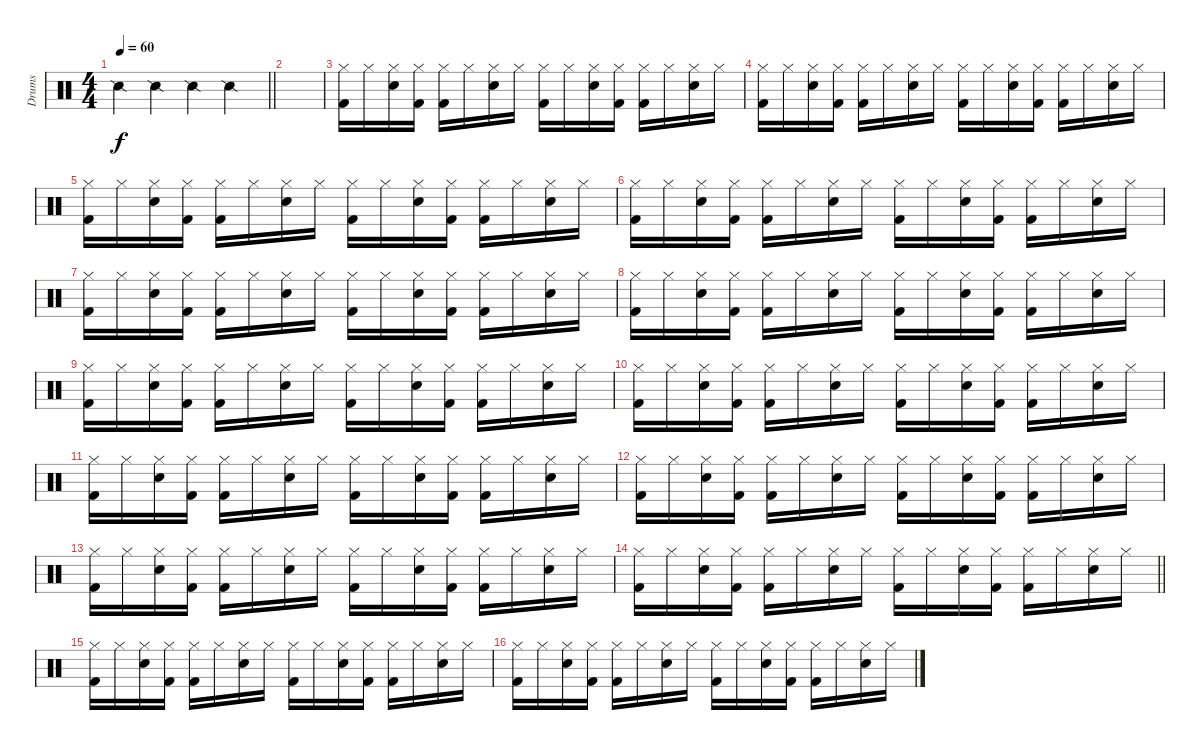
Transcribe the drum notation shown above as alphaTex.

\track ("Drums" "Drums") {instrument percussion}
\staff {score}
\articulation defaults
\ts (4 4)
\tempo 60
\clef neutral
\barLineRight lightlight
\ks c "Snare (side stick) 2".4{dy f} "Snare (side stick) 2".4 "Snare (side stick) 2".4 "Snare (side stick) 2".4
|
\section ("" "")
|
("Kick (hit) 2" "Hi-Hat (closed)").16 "Hi-Hat (closed)".16 ("Electric Snare (hit)" "Hi-Hat (closed)").16 ("Kick (hit) 2" "Hi-Hat (closed)").16 ("Kick (hit) 2" "Hi-Hat (closed)").16 "Hi-Hat (closed)".16 ("Electric Snare (hit)" "Hi-Hat (closed)").16 "Hi-Hat (closed)".16 ("Kick (hit) 2" "Hi-Hat (closed)").16 "Hi-Hat (closed)".16 ("Electric Snare (hit)" "Hi-Hat (closed)").16 ("Kick (hit) 2" "Hi-Hat (closed)").16 ("Kick (hit) 2" "Hi-Hat (closed)").16 "Hi-Hat (closed)".16 ("Electric Snare (hit)" "Hi-Hat (closed)").16 "Hi-Hat (closed)".16 |
("Kick (hit) 2" "Hi-Hat (closed)").16 "Hi-Hat (closed)".16 ("Electric Snare (hit)" "Hi-Hat (closed)").16 ("Kick (hit) 2" "Hi-Hat (closed)").16 ("Kick (hit) 2" "Hi-Hat (closed)").16 "Hi-Hat (closed)".16 ("Electric Snare (hit)" "Hi-Hat (closed)").16 "Hi-Hat (closed)".16 ("Kick (hit) 2" "Hi-Hat (closed)").16 "Hi-Hat (closed)".16 ("Electric Snare (hit)" "Hi-Hat (closed)").16 ("Kick (hit) 2" "Hi-Hat (closed)").16 ("Kick (hit) 2" "Hi-Hat (closed)").16 "Hi-Hat (closed)".16 ("Electric Snare (hit)" "Hi-Hat (closed)").16 "Hi-Hat (closed)".16 |
("Kick (hit) 2" "Hi-Hat (closed)").16 "Hi-Hat (closed)".16 ("Electric Snare (hit)" "Hi-Hat (closed)").16 ("Kick (hit) 2" "Hi-Hat (closed)").16 ("Kick (hit) 2" "Hi-Hat (closed)").16 "Hi-Hat (closed)".16 ("Electric Snare (hit)" "Hi-Hat (closed)").16 "Hi-Hat (closed)".16 ("Kick (hit) 2" "Hi-Hat (closed)").16 "Hi-Hat (closed)".16 ("Electric Snare (hit)" "Hi-Hat (closed)").16 ("Kick (hit) 2" "Hi-Hat (closed)").16 ("Kick (hit) 2" "Hi-Hat (closed)").16 "Hi-Hat (closed)".16 ("Electric Snare (hit)" "Hi-Hat (closed)").16 "Hi-Hat (closed)".16 |
("Kick (hit) 2" "Hi-Hat (closed)").16 "Hi-Hat (closed)".16 ("Electric Snare (hit)" "Hi-Hat (closed)").16 ("Kick (hit) 2" "Hi-Hat (closed)").16 ("Kick (hit) 2" "Hi-Hat (closed)").16 "Hi-Hat (closed)".16 ("Electric Snare (hit)" "Hi-Hat (closed)").16 "Hi-Hat (closed)".16 ("Kick (hit) 2" "Hi-Hat (closed)").16 "Hi-Hat (closed)".16 ("Electric Snare (hit)" "Hi-Hat (closed)").16 ("Kick (hit) 2" "Hi-Hat (closed)").16 ("Kick (hit) 2" "Hi-Hat (closed)").16 "Hi-Hat (closed)".16 ("Electric Snare (hit)" "Hi-Hat (closed)").16 "Hi-Hat (closed)".16 |
("Kick (hit) 2" "Hi-Hat (closed)").16 "Hi-Hat (closed)".16 ("Electric Snare (hit)" "Hi-Hat (closed)").16 ("Kick (hit) 2" "Hi-Hat (closed)").16 ("Kick (hit) 2" "Hi-Hat (closed)").16 "Hi-Hat (closed)".16 ("Electric Snare (hit)" "Hi-Hat (closed)").16 "Hi-Hat (closed)".16 ("Kick (hit) 2" "Hi-Hat (closed)").16 "Hi-Hat (closed)".16 ("Electric Snare (hit)" "Hi-Hat (closed)").16 ("Kick (hit) 2" "Hi-Hat (closed)").16 ("Kick (hit) 2" "Hi-Hat (closed)").16 "Hi-Hat (closed)".16 ("Electric Snare (hit)" "Hi-Hat (closed)").16 "Hi-Hat (closed)".16 |
("Kick (hit) 2" "Hi-Hat (closed)").16 "Hi-Hat (closed)".16 ("Electric Snare (hit)" "Hi-Hat (closed)").16 ("Kick (hit) 2" "Hi-Hat (closed)").16 ("Kick (hit) 2" "Hi-Hat (closed)").16 "Hi-Hat (closed)".16 ("Electric Snare (hit)" "Hi-Hat (closed)").16 "Hi-Hat (closed)".16 ("Kick (hit) 2" "Hi-Hat (closed)").16 "Hi-Hat (closed)".16 ("Electric Snare (hit)" "Hi-Hat (closed)").16 ("Kick (hit) 2" "Hi-Hat (closed)").16 ("Kick (hit) 2" "Hi-Hat (closed)").16 "Hi-Hat (closed)".16 ("Electric Snare (hit)" "Hi-Hat (closed)").16 "Hi-Hat (closed)".16 |
("Kick (hit) 2" "Hi-Hat (closed)").16 "Hi-Hat (closed)".16 ("Electric Snare (hit)" "Hi-Hat (closed)").16 ("Kick (hit) 2" "Hi-Hat (closed)").16 ("Kick (hit) 2" "Hi-Hat (closed)").16 "Hi-Hat (closed)".16 ("Electric Snare (hit)" "Hi-Hat (closed)").16 "Hi-Hat (closed)".16 ("Kick (hit) 2" "Hi-Hat (closed)").16 "Hi-Hat (closed)".16 ("Electric Snare (hit)" "Hi-Hat (closed)").16 ("Kick (hit) 2" "Hi-Hat (closed)").16 ("Kick (hit) 2" "Hi-Hat (closed)").16 "Hi-Hat (closed)".16 ("Electric Snare (hit)" "Hi-Hat (closed)").16 "Hi-Hat (closed)".16 |
("Kick (hit) 2" "Hi-Hat (closed)").16 "Hi-Hat (closed)".16 ("Electric Snare (hit)" "Hi-Hat (closed)").16 ("Kick (hit) 2" "Hi-Hat (closed)").16 ("Kick (hit) 2" "Hi-Hat (closed)").16 "Hi-Hat (closed)".16 ("Electric Snare (hit)" "Hi-Hat (closed)").16 "Hi-Hat (closed)".16 ("Kick (hit) 2" "Hi-Hat (closed)").16 "Hi-Hat (closed)".16 ("Electric Snare (hit)" "Hi-Hat (closed)").16 ("Kick (hit) 2" "Hi-Hat (closed)").16 ("Kick (hit) 2" "Hi-Hat (closed)").16 "Hi-Hat (closed)".16 ("Electric Snare (hit)" "Hi-Hat (closed)").16 "Hi-Hat (closed)".16 |
("Kick (hit) 2" "Hi-Hat (closed)").16 "Hi-Hat (closed)".16 ("Electric Snare (hit)" "Hi-Hat (closed)").16 ("Kick (hit) 2" "Hi-Hat (closed)").16 ("Kick (hit) 2" "Hi-Hat (closed)").16 "Hi-Hat (closed)".16 ("Electric Snare (hit)" "Hi-Hat (closed)").16 "Hi-Hat (closed)".16 ("Kick (hit) 2" "Hi-Hat (closed)").16 "Hi-Hat (closed)".16 ("Electric Snare (hit)" "Hi-Hat (closed)").16 ("Kick (hit) 2" "Hi-Hat (closed)").16 ("Kick (hit) 2" "Hi-Hat (closed)").16 "Hi-Hat (closed)".16 ("Electric Snare (hit)" "Hi-Hat (closed)").16 "Hi-Hat (closed)".16 |
("Kick (hit) 2" "Hi-Hat (closed)").16 "Hi-Hat (closed)".16 ("Electric Snare (hit)" "Hi-Hat (closed)").16 ("Kick (hit) 2" "Hi-Hat (closed)").16 ("Kick (hit) 2" "Hi-Hat (closed)").16 "Hi-Hat (closed)".16 ("Electric Snare (hit)" "Hi-Hat (closed)").16 "Hi-Hat (closed)".16 ("Kick (hit) 2" "Hi-Hat (closed)").16 "Hi-Hat (closed)".16 ("Electric Snare (hit)" "Hi-Hat (closed)").16 ("Kick (hit) 2" "Hi-Hat (closed)").16 ("Kick (hit) 2" "Hi-Hat (closed)").16 "Hi-Hat (closed)".16 ("Electric Snare (hit)" "Hi-Hat (closed)").16 "Hi-Hat (closed)".16 |
("Kick (hit) 2" "Hi-Hat (closed)").16 "Hi-Hat (closed)".16 ("Electric Snare (hit)" "Hi-Hat (closed)").16 ("Kick (hit) 2" "Hi-Hat (closed)").16 ("Kick (hit) 2" "Hi-Hat (closed)").16 "Hi-Hat (closed)".16 ("Electric Snare (hit)" "Hi-Hat (closed)").16 "Hi-Hat (closed)".16 ("Kick (hit) 2" "Hi-Hat (closed)").16 "Hi-Hat (closed)".16 ("Electric Snare (hit)" "Hi-Hat (closed)").16 ("Kick (hit) 2" "Hi-Hat (closed)").16 ("Kick (hit) 2" "Hi-Hat (closed)").16 "Hi-Hat (closed)".16 ("Electric Snare (hit)" "Hi-Hat (closed)").16 "Hi-Hat (closed)".16 |
\barLineRight lightlight
("Kick (hit) 2" "Hi-Hat (closed)").16 "Hi-Hat (closed)".16 ("Electric Snare (hit)" "Hi-Hat (closed)").16 ("Kick (hit) 2" "Hi-Hat (closed)").16 ("Kick (hit) 2" "Hi-Hat (closed)").16 "Hi-Hat (closed)".16 ("Electric Snare (hit)" "Hi-Hat (closed)").16 "Hi-Hat (closed)".16 ("Kick (hit) 2" "Hi-Hat (closed)").16 "Hi-Hat (closed)".16 ("Electric Snare (hit)" "Hi-Hat (closed)").16 ("Kick (hit) 2" "Hi-Hat (closed)").16 ("Kick (hit) 2" "Hi-Hat (closed)").16 "Hi-Hat (closed)".16 ("Electric Snare (hit)" "Hi-Hat (closed)").16 "Hi-Hat (closed)".16 |
\section ("" "")
("Kick (hit) 2" "Hi-Hat (closed)").16 "Hi-Hat (closed)".16 ("Electric Snare (hit)" "Hi-Hat (closed)").16 ("Kick (hit) 2" "Hi-Hat (closed)").16 ("Kick (hit) 2" "Hi-Hat (closed)").16 "Hi-Hat (closed)".16 ("Electric Snare (hit)" "Hi-Hat (closed)").16 "Hi-Hat (closed)".16 ("Kick (hit) 2" "Hi-Hat (closed)").16 "Hi-Hat (closed)".16 ("Electric Snare (hit)" "Hi-Hat (closed)").16 ("Kick (hit) 2" "Hi-Hat (closed)").16 ("Kick (hit) 2" "Hi-Hat (closed)").16 "Hi-Hat (closed)".16 ("Electric Snare (hit)" "Hi-Hat (closed)").16 "Hi-Hat (closed)".16 |
("Kick (hit) 2" "Hi-Hat (closed)").16 "Hi-Hat (closed)".16 ("Electric Snare (hit)" "Hi-Hat (closed)").16 ("Kick (hit) 2" "Hi-Hat (closed)").16 ("Kick (hit) 2" "Hi-Hat (closed)").16 "Hi-Hat (closed)".16 ("Electric Snare (hit)" "Hi-Hat (closed)").16 "Hi-Hat (closed)".16 ("Kick (hit) 2" "Hi-Hat (closed)").16 "Hi-Hat (closed)".16 ("Electric Snare (hit)" "Hi-Hat (closed)").16 ("Kick (hit) 2" "Hi-Hat (closed)").16 ("Kick (hit) 2" "Hi-Hat (closed)").16 "Hi-Hat (closed)".16 ("Electric Snare (hit)" "Hi-Hat (closed)").16 "Hi-Hat (closed)".16
